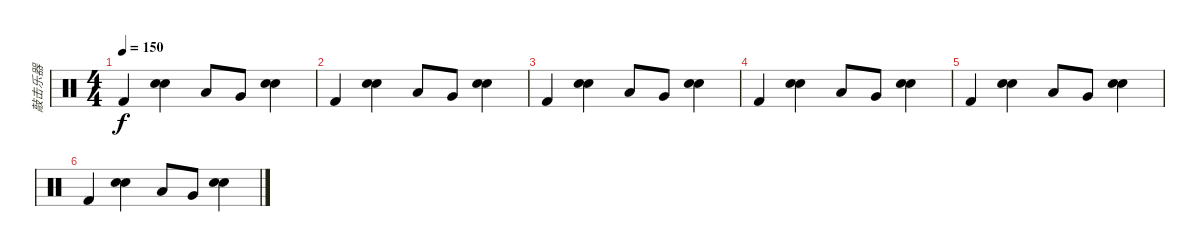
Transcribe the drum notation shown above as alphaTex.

\track ("敲击乐器" "敲击乐器") {instrument percussion}
\staff {score}
\articulation defaults
\ts (4 4)
\tempo 150
\clef neutral
\ks c "Kick (hit) 2".4{dy f}
("Electric Snare (hit)" "Snare (hit) 2").4 "Low Tom (hit)".8 "Very Low Tom (hit)".8 ("Electric Snare (hit)" "Snare (hit) 2").4 |
"Kick (hit) 2".4 ("Electric Snare (hit)" "Snare (hit) 2").4 "Low Tom (hit)".8 "Very Low Tom (hit)".8 ("Electric Snare (hit)" "Snare (hit) 2").4 |
"Kick (hit) 2".4 ("Electric Snare (hit)" "Snare (hit) 2").4 "Low Tom (hit)".8 "Very Low Tom (hit)".8 ("Electric Snare (hit)" "Snare (hit) 2").4 |
"Kick (hit) 2".4 ("Electric Snare (hit)" "Snare (hit) 2").4 "Low Tom (hit)".8 "Very Low Tom (hit)".8 ("Electric Snare (hit)" "Snare (hit) 2").4 |
"Kick (hit) 2".4 ("Electric Snare (hit)" "Snare (hit) 2").4 "Low Tom (hit)".8 "Very Low Tom (hit)".8 ("Electric Snare (hit)" "Snare (hit) 2").4 |
"Kick (hit) 2".4 ("Electric Snare (hit)" "Snare (hit) 2").4 "Low Tom (hit)".8 "Very Low Tom (hit)".8 ("Electric Snare (hit)" "Snare (hit) 2").4
